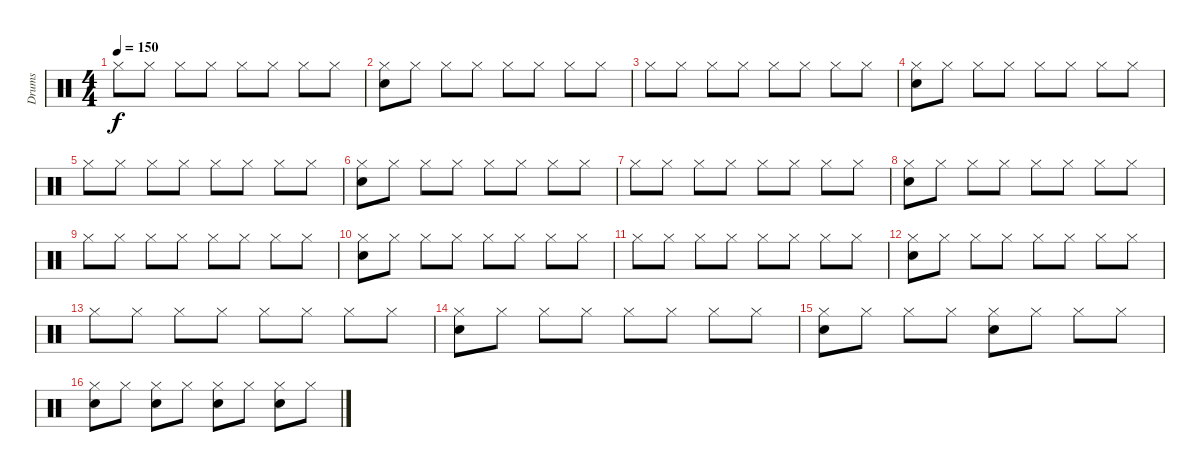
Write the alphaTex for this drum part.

\track ("Drums" "Drums") {instrument percussion}
\staff {score}
\articulation defaults
\ts (4 4)
\tempo 150
\clef neutral
\ks c "Hi-Hat (closed)".8{dy f} "Hi-Hat (closed)".8 "Hi-Hat (closed)".8 "Hi-Hat (closed)".8 "Hi-Hat (closed)".8 "Hi-Hat (closed)".8 "Hi-Hat (closed)".8 "Hi-Hat (closed)".8
|
("Hi-Hat (closed)" "Snare (hit) 2").8 "Hi-Hat (closed)".8 "Hi-Hat (closed)".8 "Hi-Hat (closed)".8 "Hi-Hat (closed)".8 "Hi-Hat (closed)".8 "Hi-Hat (closed)".8 "Hi-Hat (closed)".8 |
"Hi-Hat (closed)".8 "Hi-Hat (closed)".8 "Hi-Hat (closed)".8 "Hi-Hat (closed)".8 "Hi-Hat (closed)".8 "Hi-Hat (closed)".8 "Hi-Hat (closed)".8 "Hi-Hat (closed)".8 |
("Hi-Hat (closed)" "Snare (hit) 2").8 "Hi-Hat (closed)".8 "Hi-Hat (closed)".8 "Hi-Hat (closed)".8 "Hi-Hat (closed)".8 "Hi-Hat (closed)".8 "Hi-Hat (closed)".8 "Hi-Hat (closed)".8 |
"Hi-Hat (closed)".8 "Hi-Hat (closed)".8 "Hi-Hat (closed)".8 "Hi-Hat (closed)".8 "Hi-Hat (closed)".8 "Hi-Hat (closed)".8 "Hi-Hat (closed)".8 "Hi-Hat (closed)".8 |
("Hi-Hat (closed)" "Snare (hit) 2").8 "Hi-Hat (closed)".8 "Hi-Hat (closed)".8 "Hi-Hat (closed)".8 "Hi-Hat (closed)".8 "Hi-Hat (closed)".8 "Hi-Hat (closed)".8 "Hi-Hat (closed)".8 |
"Hi-Hat (closed)".8 "Hi-Hat (closed)".8 "Hi-Hat (closed)".8 "Hi-Hat (closed)".8 "Hi-Hat (closed)".8 "Hi-Hat (closed)".8 "Hi-Hat (closed)".8 "Hi-Hat (closed)".8 |
("Hi-Hat (closed)" "Snare (hit) 2").8 "Hi-Hat (closed)".8 "Hi-Hat (closed)".8 "Hi-Hat (closed)".8 "Hi-Hat (closed)".8 "Hi-Hat (closed)".8 "Hi-Hat (closed)".8 "Hi-Hat (closed)".8 |
"Hi-Hat (closed)".8 "Hi-Hat (closed)".8 "Hi-Hat (closed)".8 "Hi-Hat (closed)".8 "Hi-Hat (closed)".8 "Hi-Hat (closed)".8 "Hi-Hat (closed)".8 "Hi-Hat (closed)".8 |
("Hi-Hat (closed)" "Snare (hit) 2").8 "Hi-Hat (closed)".8 "Hi-Hat (closed)".8 "Hi-Hat (closed)".8 "Hi-Hat (closed)".8 "Hi-Hat (closed)".8 "Hi-Hat (closed)".8 "Hi-Hat (closed)".8 |
"Hi-Hat (closed)".8 "Hi-Hat (closed)".8 "Hi-Hat (closed)".8 "Hi-Hat (closed)".8 "Hi-Hat (closed)".8 "Hi-Hat (closed)".8 "Hi-Hat (closed)".8 "Hi-Hat (closed)".8 |
("Hi-Hat (closed)" "Snare (hit) 2").8 "Hi-Hat (closed)".8 "Hi-Hat (closed)".8 "Hi-Hat (closed)".8 "Hi-Hat (closed)".8 "Hi-Hat (closed)".8 "Hi-Hat (closed)".8 "Hi-Hat (closed)".8 |
"Hi-Hat (closed)".8 "Hi-Hat (closed)".8 "Hi-Hat (closed)".8 "Hi-Hat (closed)".8 "Hi-Hat (closed)".8 "Hi-Hat (closed)".8 "Hi-Hat (closed)".8 "Hi-Hat (closed)".8 |
("Hi-Hat (closed)" "Snare (hit) 2").8 "Hi-Hat (closed)".8 "Hi-Hat (closed)".8 "Hi-Hat (closed)".8 "Hi-Hat (closed)".8 "Hi-Hat (closed)".8 "Hi-Hat (closed)".8 "Hi-Hat (closed)".8 |
("Hi-Hat (closed)" "Snare (hit) 2").8 "Hi-Hat (closed)".8 "Hi-Hat (closed)".8 "Hi-Hat (closed)".8 ("Hi-Hat (closed)" "Snare (hit) 2").8 "Hi-Hat (closed)".8 "Hi-Hat (closed)".8 "Hi-Hat (closed)".8 |
("Hi-Hat (closed)" "Snare (hit) 2").8 "Hi-Hat (closed)".8 ("Hi-Hat (closed)" "Snare (hit) 2").8 "Hi-Hat (closed)".8 ("Hi-Hat (closed)" "Snare (hit) 2").8 "Hi-Hat (closed)".8 ("Hi-Hat (closed)" "Snare (hit) 2").8 "Hi-Hat (closed)".8
